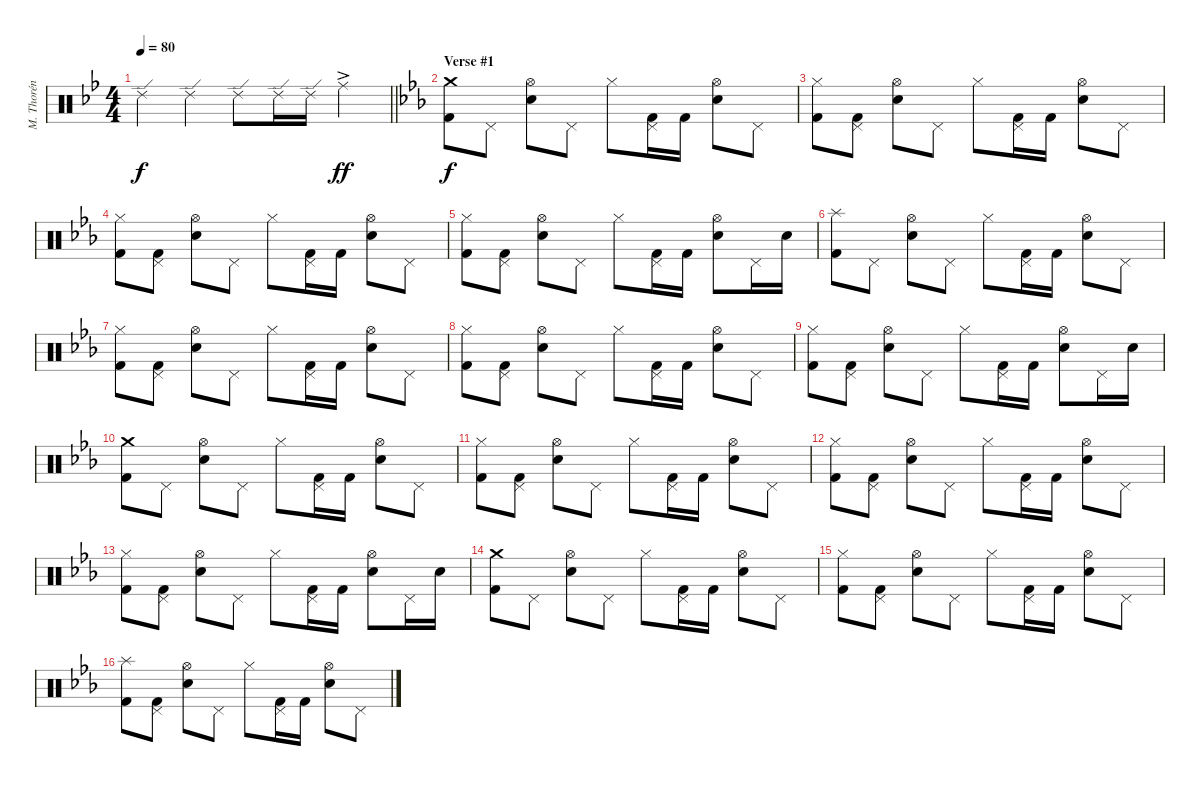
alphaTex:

\track ("M. Thorén (Drums)" "M. Thorén ") {instrument percussion}
\staff {score}
\articulation defaults
\ts (4 4)
\tempo 80
\clef neutral
\barLineRight lightlight
\ks gminor "Ride (edge) 2".4{dy f} "Ride (edge) 2".4 "Ride (edge) 2".8 "Ride (edge) 2".16 "Ride (edge) 2".16 "Ride (middle)"{ac}.4{dy ff}
|
\section ("" "Verse #1")
\ks eb
("Crash medium (hit)" "Kick (hit) 2").8{dy f} "Pedal Hi-Hat (hit)".8 ("Hi-Hat (open)" "Electric Snare (hit)").8 "Pedal Hi-Hat (hit)".8 "Hi-Hat (closed)".8 ("Pedal Hi-Hat (hit)" "Kick (hit) 2").16 "Kick (hit) 2".16 ("Hi-Hat (open)" "Electric Snare (hit)").8 "Pedal Hi-Hat (hit)".8 |
("Hi-Hat (closed)" "Kick (hit) 2").8 ("Pedal Hi-Hat (hit)" "Kick (hit) 2").8 ("Hi-Hat (open)" "Electric Snare (hit)").8 "Pedal Hi-Hat (hit)".8 "Hi-Hat (closed)".8 ("Pedal Hi-Hat (hit)" "Kick (hit) 2").16 "Kick (hit) 2".16 ("Hi-Hat (open)" "Electric Snare (hit)").8 "Pedal Hi-Hat (hit)".8 |
("Hi-Hat (closed)" "Kick (hit) 2").8 ("Pedal Hi-Hat (hit)" "Kick (hit) 2").8 ("Hi-Hat (open)" "Electric Snare (hit)").8 "Pedal Hi-Hat (hit)".8 "Hi-Hat (closed)".8 ("Pedal Hi-Hat (hit)" "Kick (hit) 2").16 "Kick (hit) 2".16 ("Hi-Hat (open)" "Electric Snare (hit)").8 "Pedal Hi-Hat (hit)".8 |
("Hi-Hat (closed)" "Kick (hit) 2").8 ("Pedal Hi-Hat (hit)" "Kick (hit) 2").8 ("Hi-Hat (open)" "Electric Snare (hit)").8 "Pedal Hi-Hat (hit)".8 "Hi-Hat (closed)".8 ("Pedal Hi-Hat (hit)" "Kick (hit) 2").16 "Kick (hit) 2".16 ("Hi-Hat (open)" "Electric Snare (hit)").8 "Pedal Hi-Hat (hit)".16 "Electric Snare (hit)".16 |
("Splash (hit)" "Kick (hit) 2").8 "Pedal Hi-Hat (hit)".8 ("Hi-Hat (open)" "Electric Snare (hit)").8 "Pedal Hi-Hat (hit)".8 "Hi-Hat (closed)".8 ("Pedal Hi-Hat (hit)" "Kick (hit) 2").16 "Kick (hit) 2".16 ("Hi-Hat (open)" "Electric Snare (hit)").8 "Pedal Hi-Hat (hit)".8 |
("Hi-Hat (closed)" "Kick (hit) 2").8 ("Pedal Hi-Hat (hit)" "Kick (hit) 2").8 ("Hi-Hat (open)" "Electric Snare (hit)").8 "Pedal Hi-Hat (hit)".8 "Hi-Hat (closed)".8 ("Pedal Hi-Hat (hit)" "Kick (hit) 2").16 "Kick (hit) 2".16 ("Hi-Hat (open)" "Electric Snare (hit)").8 "Pedal Hi-Hat (hit)".8 |
("Hi-Hat (closed)" "Kick (hit) 2").8 ("Pedal Hi-Hat (hit)" "Kick (hit) 2").8 ("Hi-Hat (open)" "Electric Snare (hit)").8 "Pedal Hi-Hat (hit)".8 "Hi-Hat (closed)".8 ("Pedal Hi-Hat (hit)" "Kick (hit) 2").16 "Kick (hit) 2".16 ("Hi-Hat (open)" "Electric Snare (hit)").8 "Pedal Hi-Hat (hit)".8 |
("Hi-Hat (closed)" "Kick (hit) 2").8 ("Pedal Hi-Hat (hit)" "Kick (hit) 2").8 ("Hi-Hat (open)" "Electric Snare (hit)").8 "Pedal Hi-Hat (hit)".8 "Hi-Hat (closed)".8 ("Pedal Hi-Hat (hit)" "Kick (hit) 2").16 "Kick (hit) 2".16 ("Hi-Hat (open)" "Electric Snare (hit)").8 "Pedal Hi-Hat (hit)".16 "Electric Snare (hit)".16 |
("Crash medium (hit)" "Kick (hit) 2").8 "Pedal Hi-Hat (hit)".8 ("Hi-Hat (open)" "Electric Snare (hit)").8 "Pedal Hi-Hat (hit)".8 "Hi-Hat (closed)".8 ("Pedal Hi-Hat (hit)" "Kick (hit) 2").16 "Kick (hit) 2".16 ("Hi-Hat (open)" "Electric Snare (hit)").8 "Pedal Hi-Hat (hit)".8 |
("Hi-Hat (closed)" "Kick (hit) 2").8 ("Pedal Hi-Hat (hit)" "Kick (hit) 2").8 ("Hi-Hat (open)" "Electric Snare (hit)").8 "Pedal Hi-Hat (hit)".8 "Hi-Hat (closed)".8 ("Pedal Hi-Hat (hit)" "Kick (hit) 2").16 "Kick (hit) 2".16 ("Hi-Hat (open)" "Electric Snare (hit)").8 "Pedal Hi-Hat (hit)".8 |
("Hi-Hat (closed)" "Kick (hit) 2").8 ("Pedal Hi-Hat (hit)" "Kick (hit) 2").8 ("Hi-Hat (open)" "Electric Snare (hit)").8 "Pedal Hi-Hat (hit)".8 "Hi-Hat (closed)".8 ("Pedal Hi-Hat (hit)" "Kick (hit) 2").16 "Kick (hit) 2".16 ("Hi-Hat (open)" "Electric Snare (hit)").8 "Pedal Hi-Hat (hit)".8 |
("Hi-Hat (closed)" "Kick (hit) 2").8 ("Pedal Hi-Hat (hit)" "Kick (hit) 2").8 ("Hi-Hat (open)" "Electric Snare (hit)").8 "Pedal Hi-Hat (hit)".8 "Hi-Hat (closed)".8 ("Pedal Hi-Hat (hit)" "Kick (hit) 2").16 "Kick (hit) 2".16 ("Hi-Hat (open)" "Electric Snare (hit)").8 "Pedal Hi-Hat (hit)".16 "Electric Snare (hit)".16 |
("Crash medium (hit)" "Kick (hit) 2").8 "Pedal Hi-Hat (hit)".8 ("Hi-Hat (open)" "Electric Snare (hit)").8 "Pedal Hi-Hat (hit)".8 "Hi-Hat (closed)".8 ("Pedal Hi-Hat (hit)" "Kick (hit) 2").16 "Kick (hit) 2".16 ("Hi-Hat (open)" "Electric Snare (hit)").8 "Pedal Hi-Hat (hit)".8 |
("Hi-Hat (closed)" "Kick (hit) 2").8 ("Pedal Hi-Hat (hit)" "Kick (hit) 2").8 ("Hi-Hat (open)" "Electric Snare (hit)").8 "Pedal Hi-Hat (hit)".8 "Hi-Hat (closed)".8 ("Pedal Hi-Hat (hit)" "Kick (hit) 2").16 "Kick (hit) 2".16 ("Hi-Hat (open)" "Electric Snare (hit)").8 "Pedal Hi-Hat (hit)".8 |
("Splash (hit)" "Kick (hit) 2").8 ("Pedal Hi-Hat (hit)" "Kick (hit) 2").8 ("Hi-Hat (open)" "Electric Snare (hit)").8 "Pedal Hi-Hat (hit)".8 "Hi-Hat (closed)".8 ("Pedal Hi-Hat (hit)" "Kick (hit) 2").16 "Kick (hit) 2".16 ("Hi-Hat (open)" "Electric Snare (hit)").8 "Pedal Hi-Hat (hit)".8
